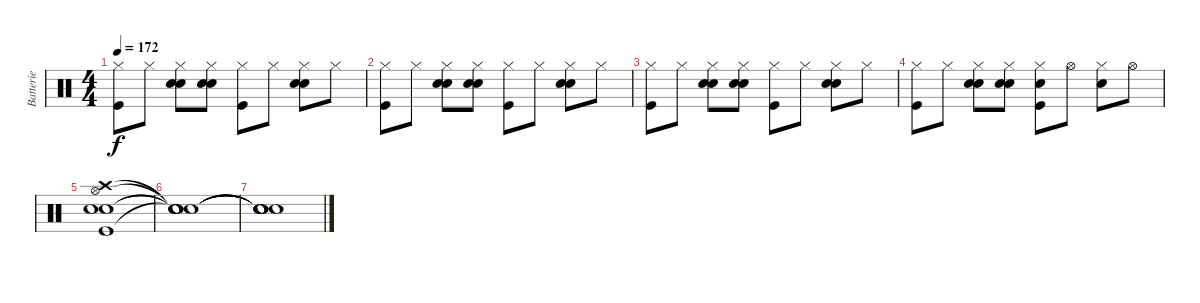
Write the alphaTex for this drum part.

\track ("Batterie" "Batterie") {instrument percussion}
\staff {score}
\articulation defaults
\ts (4 4)
\tempo 172
\clef neutral
\ks c
("Hi-Hat (closed)" "Kick (hit)").8{dy f} "Hi-Hat (closed)".8 ("Electric Snare (hit)" "Hi-Hat (closed)" "Snare (hit) 2").8 ("Electric Snare (hit)" "Hi-Hat (closed)" "Snare (hit) 2").8 ("Hi-Hat (closed)" "Kick (hit)").8 "Hi-Hat (closed)".8 ("Electric Snare (hit)" "Hi-Hat (closed)" "Snare (hit) 2").8 "Hi-Hat (closed)".8 |
("Hi-Hat (closed)" "Kick (hit)").8 "Hi-Hat (closed)".8 ("Electric Snare (hit)" "Hi-Hat (closed)" "Snare (hit) 2").8 ("Electric Snare (hit)" "Hi-Hat (closed)" "Snare (hit) 2").8 ("Hi-Hat (closed)" "Kick (hit)").8 "Hi-Hat (closed)".8 ("Electric Snare (hit)" "Hi-Hat (closed)" "Snare (hit) 2").8 "Hi-Hat (closed)".8 |
("Hi-Hat (closed)" "Kick (hit)").8 "Hi-Hat (closed)".8 ("Electric Snare (hit)" "Hi-Hat (closed)" "Snare (hit) 2").8 ("Electric Snare (hit)" "Hi-Hat (closed)" "Snare (hit) 2").8 ("Hi-Hat (closed)" "Kick (hit)").8 "Hi-Hat (closed)".8 ("Electric Snare (hit)" "Hi-Hat (closed)" "Snare (hit) 2").8 "Hi-Hat (closed)".8 |
("Hi-Hat (closed)" "Kick (hit)").8 "Hi-Hat (closed)".8 ("Electric Snare (hit)" "Hi-Hat (closed)" "Snare (hit) 2").8 ("Electric Snare (hit)" "Hi-Hat (closed)" "Snare (hit) 2").8 ("Snare (hit) 2" "Hi-Hat (closed)" "Kick (hit)").8 "Hi-Hat (open)".8 ("Snare (hit) 2" "Hi-Hat (closed)").8 "Hi-Hat (open)".8 |
("Crash high (hit)" "Hi-Hat (open)" "Electric Snare (hit)" "Snare (hit) 2" "Kick (hit)").1 |
("Snare (hit)"{t} "Snare (hit)"{t} "Snare (hit)"{t} "Snare (hit)"{t} "Snare (hit)"{t}).1 |
("Snare (hit)"{t} "Snare (hit)"{t} "Snare (hit)"{t} "Snare (hit)"{t} "Snare (hit)"{t}).1
